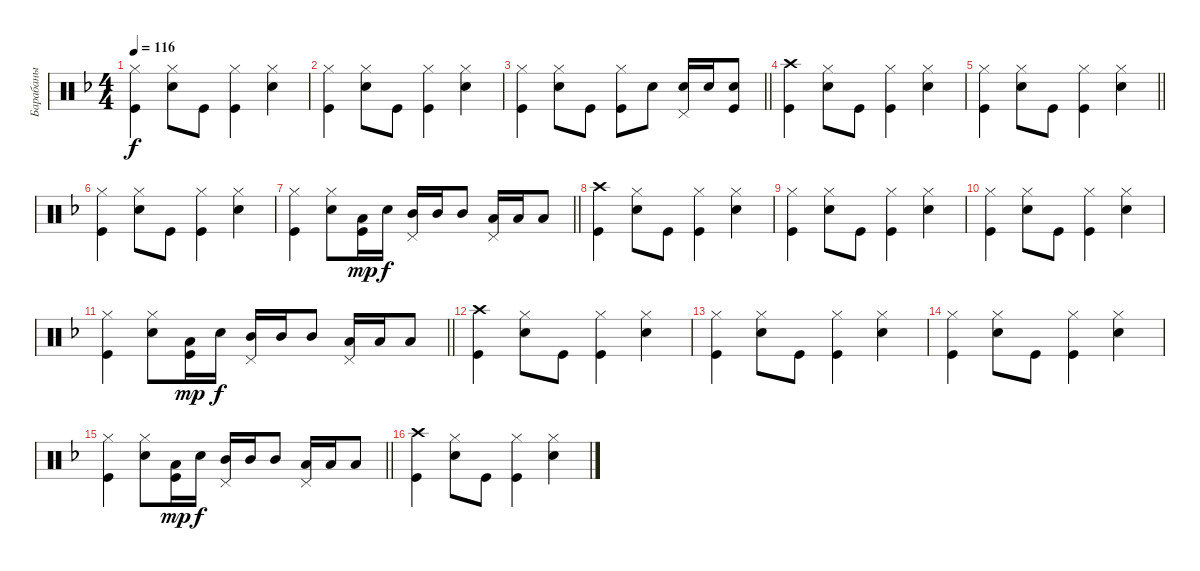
\track ("Барабаны" "Барабаны") {instrument percussion}
\staff {score}
\articulation defaults
\ts (4 4)
\tempo 116
\clef neutral
\ks dminor
("Hi-Hat (closed)" "Kick (hit)").4{dy f} ("Hi-Hat (closed)" "Snare (hit) 2").8 "Kick (hit)".8 ("Hi-Hat (closed)" "Kick (hit)").4 ("Hi-Hat (closed)" "Snare (hit) 2").4 |
("Hi-Hat (closed)" "Kick (hit)").4 ("Hi-Hat (closed)" "Snare (hit) 2").8 "Kick (hit)".8 ("Hi-Hat (closed)" "Kick (hit)").4 ("Hi-Hat (closed)" "Snare (hit) 2").4 |
\barLineRight lightlight
("Hi-Hat (closed)" "Kick (hit)").4 ("Hi-Hat (closed)" "Snare (hit) 2").8 "Kick (hit)".8 ("Hi-Hat (closed)" "Kick (hit)").8 "Snare (hit) 2".8 ("Snare (hit) 2" "Pedal Hi-Hat (hit)").16 "Snare (hit) 2".16 ("Snare (hit) 2" "Kick (hit)").8 |
("Kick (hit)" "Crash high (hit)").4 ("Hi-Hat (closed)" "Snare (hit) 2").8 "Kick (hit)".8 ("Hi-Hat (closed)" "Kick (hit)").4 ("Hi-Hat (closed)" "Snare (hit) 2").4 |
\barLineRight lightlight
("Hi-Hat (closed)" "Kick (hit)").4 ("Hi-Hat (closed)" "Snare (hit) 2").8 "Kick (hit)".8 ("Hi-Hat (closed)" "Kick (hit)").4 ("Hi-Hat (closed)" "Snare (hit) 2").4 |
("Hi-Hat (closed)" "Kick (hit)").4 ("Hi-Hat (closed)" "Snare (hit) 2").8 "Kick (hit)".8 ("Hi-Hat (closed)" "Kick (hit)").4 ("Hi-Hat (closed)" "Snare (hit) 2").4 |
\barLineRight lightlight
("Hi-Hat (closed)" "Kick (hit)").4 ("Hi-Hat (closed)" "Snare (hit) 2").8 ("Low Floor Tom (hit)" "Kick (hit)").16{dy mp} "Snare (hit) 2".16{dy f} ("Mid Tom (hit)" "Pedal Hi-Hat (hit)").16 "Mid Tom (hit)".16 "Mid Tom (hit)".8 ("Pedal Hi-Hat (hit)" "Low Tom (hit)").16 "Low Tom (hit)".16 "Low Tom (hit)".8 |
("Kick (hit)" "Crash high (hit)").4 ("Hi-Hat (closed)" "Snare (hit) 2").8 "Kick (hit)".8 ("Hi-Hat (closed)" "Kick (hit)").4 ("Hi-Hat (closed)" "Snare (hit) 2").4 |
("Hi-Hat (closed)" "Kick (hit)").4 ("Hi-Hat (closed)" "Snare (hit) 2").8 "Kick (hit)".8 ("Hi-Hat (closed)" "Kick (hit)").4 ("Hi-Hat (closed)" "Snare (hit) 2").4 |
("Hi-Hat (closed)" "Kick (hit)").4 ("Hi-Hat (closed)" "Snare (hit) 2").8 "Kick (hit)".8 ("Hi-Hat (closed)" "Kick (hit)").4 ("Hi-Hat (closed)" "Snare (hit) 2").4 |
\barLineRight lightlight
("Hi-Hat (closed)" "Kick (hit)").4 ("Hi-Hat (closed)" "Snare (hit) 2").8 ("Low Floor Tom (hit)" "Kick (hit)").16{dy mp} "Snare (hit) 2".16{dy f} ("Mid Tom (hit)" "Pedal Hi-Hat (hit)").16 "Mid Tom (hit)".16 "Mid Tom (hit)".8 ("Pedal Hi-Hat (hit)" "Low Tom (hit)").16 "Low Tom (hit)".16 "Low Tom (hit)".8 |
("Kick (hit)" "Crash high (hit)").4 ("Hi-Hat (closed)" "Snare (hit) 2").8 "Kick (hit)".8 ("Hi-Hat (closed)" "Kick (hit)").4 ("Hi-Hat (closed)" "Snare (hit) 2").4 |
("Hi-Hat (closed)" "Kick (hit)").4 ("Hi-Hat (closed)" "Snare (hit) 2").8 "Kick (hit)".8 ("Hi-Hat (closed)" "Kick (hit)").4 ("Hi-Hat (closed)" "Snare (hit) 2").4 |
("Hi-Hat (closed)" "Kick (hit)").4 ("Hi-Hat (closed)" "Snare (hit) 2").8 "Kick (hit)".8 ("Hi-Hat (closed)" "Kick (hit)").4 ("Hi-Hat (closed)" "Snare (hit) 2").4 |
\barLineRight lightlight
("Hi-Hat (closed)" "Kick (hit)").4 ("Hi-Hat (closed)" "Snare (hit) 2").8 ("Low Floor Tom (hit)" "Kick (hit)").16{dy mp} "Snare (hit) 2".16{dy f} ("Mid Tom (hit)" "Pedal Hi-Hat (hit)").16 "Mid Tom (hit)".16 "Mid Tom (hit)".8 ("Pedal Hi-Hat (hit)" "Low Tom (hit)").16 "Low Tom (hit)".16 "Low Tom (hit)".8 |
("Kick (hit)" "Crash high (hit)").4 ("Hi-Hat (closed)" "Snare (hit) 2").8 "Kick (hit)".8 ("Hi-Hat (closed)" "Kick (hit)").4 ("Hi-Hat (closed)" "Snare (hit) 2").4
